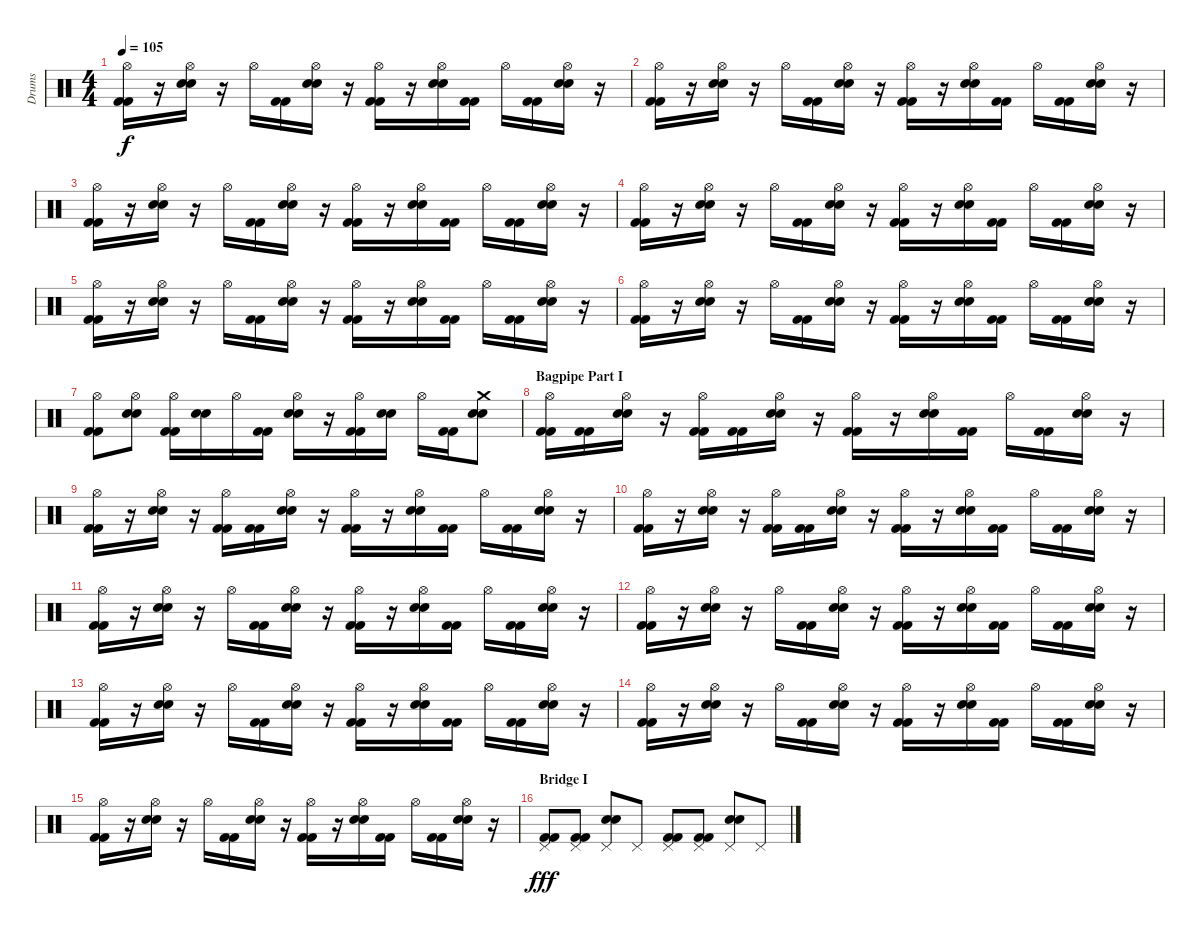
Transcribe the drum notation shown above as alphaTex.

\track ("Drums" "Drums") {instrument percussion}
\staff {score}
\articulation defaults
\ts (4 4)
\tempo 105
\clef neutral
\ks c
("Hi-Hat (open)" "Kick (hit) 2" "Kick (hit) 2").16{dy f} r.16 ("Hi-Hat (open)" "Electric Snare (hit)" "Snare (hit) 2").16 r.16 "Hi-Hat (open)".16 ("Kick (hit) 2" "Kick (hit) 2").16 ("Hi-Hat (open)" "Electric Snare (hit)" "Snare (hit) 2").16 r.16 ("Hi-Hat (open)" "Kick (hit) 2" "Kick (hit) 2").16 r.16 ("Hi-Hat (open)" "Electric Snare (hit)" "Snare (hit) 2").16 ("Kick (hit) 2" "Kick (hit) 2").16 "Hi-Hat (open)".16 ("Kick (hit) 2" "Kick (hit) 2").16 ("Hi-Hat (open)" "Electric Snare (hit)" "Snare (hit) 2").16 r.16 |
("Hi-Hat (open)" "Kick (hit) 2" "Kick (hit) 2").16 r.16 ("Hi-Hat (open)" "Electric Snare (hit)" "Snare (hit) 2").16 r.16 "Hi-Hat (open)".16 ("Kick (hit) 2" "Kick (hit) 2").16 ("Hi-Hat (open)" "Electric Snare (hit)" "Snare (hit) 2").16 r.16 ("Hi-Hat (open)" "Kick (hit) 2" "Kick (hit) 2").16 r.16 ("Hi-Hat (open)" "Electric Snare (hit)" "Snare (hit) 2").16 ("Kick (hit) 2" "Kick (hit) 2").16 "Hi-Hat (open)".16 ("Kick (hit) 2" "Kick (hit) 2").16 ("Hi-Hat (open)" "Electric Snare (hit)" "Snare (hit) 2").16 r.16 |
("Hi-Hat (open)" "Kick (hit) 2" "Kick (hit) 2").16 r.16 ("Hi-Hat (open)" "Electric Snare (hit)" "Snare (hit) 2").16 r.16 "Hi-Hat (open)".16 ("Kick (hit) 2" "Kick (hit) 2").16 ("Hi-Hat (open)" "Electric Snare (hit)" "Snare (hit) 2").16 r.16 ("Hi-Hat (open)" "Kick (hit) 2" "Kick (hit) 2").16 r.16 ("Hi-Hat (open)" "Electric Snare (hit)" "Snare (hit) 2").16 ("Kick (hit) 2" "Kick (hit) 2").16 "Hi-Hat (open)".16 ("Kick (hit) 2" "Kick (hit) 2").16 ("Hi-Hat (open)" "Electric Snare (hit)" "Snare (hit) 2").16 r.16 |
("Hi-Hat (open)" "Kick (hit) 2" "Kick (hit) 2").16 r.16 ("Hi-Hat (open)" "Electric Snare (hit)" "Snare (hit) 2").16 r.16 "Hi-Hat (open)".16 ("Kick (hit) 2" "Kick (hit) 2").16 ("Hi-Hat (open)" "Electric Snare (hit)" "Snare (hit) 2").16 r.16 ("Hi-Hat (open)" "Kick (hit) 2" "Kick (hit) 2").16 r.16 ("Hi-Hat (open)" "Electric Snare (hit)" "Snare (hit) 2").16 ("Kick (hit) 2" "Kick (hit) 2").16 "Hi-Hat (open)".16 ("Kick (hit) 2" "Kick (hit) 2").16 ("Hi-Hat (open)" "Electric Snare (hit)" "Snare (hit) 2").16 r.16 |
("Hi-Hat (open)" "Kick (hit) 2" "Kick (hit) 2").16 r.16 ("Hi-Hat (open)" "Electric Snare (hit)" "Snare (hit) 2").16 r.16 "Hi-Hat (open)".16 ("Kick (hit) 2" "Kick (hit) 2").16 ("Hi-Hat (open)" "Electric Snare (hit)" "Snare (hit) 2").16 r.16 ("Hi-Hat (open)" "Kick (hit) 2" "Kick (hit) 2").16 r.16 ("Hi-Hat (open)" "Electric Snare (hit)" "Snare (hit) 2").16 ("Kick (hit) 2" "Kick (hit) 2").16 "Hi-Hat (open)".16 ("Kick (hit) 2" "Kick (hit) 2").16 ("Hi-Hat (open)" "Electric Snare (hit)" "Snare (hit) 2").16 r.16 |
("Hi-Hat (open)" "Kick (hit) 2" "Kick (hit) 2").16 r.16 ("Hi-Hat (open)" "Electric Snare (hit)" "Snare (hit) 2").16 r.16 "Hi-Hat (open)".16 ("Kick (hit) 2" "Kick (hit) 2").16 ("Hi-Hat (open)" "Electric Snare (hit)" "Snare (hit) 2").16 r.16 ("Hi-Hat (open)" "Kick (hit) 2" "Kick (hit) 2").16 r.16 ("Hi-Hat (open)" "Electric Snare (hit)" "Snare (hit) 2").16 ("Kick (hit) 2" "Kick (hit) 2").16 "Hi-Hat (open)".16 ("Kick (hit) 2" "Kick (hit) 2").16 ("Hi-Hat (open)" "Electric Snare (hit)" "Snare (hit) 2").16 r.16 |
("Hi-Hat (open)" "Kick (hit) 2" "Kick (hit) 2").8 ("Hi-Hat (open)" "Electric Snare (hit)" "Snare (hit) 2").8 ("Hi-Hat (open)" "Kick (hit) 2" "Kick (hit) 2").16 ("Electric Snare (hit)" "Snare (hit) 2").16 "Hi-Hat (open)".16 ("Kick (hit) 2" "Kick (hit) 2").16 ("Hi-Hat (open)" "Electric Snare (hit)" "Snare (hit) 2").16 r.16 ("Hi-Hat (open)" "Kick (hit) 2" "Kick (hit) 2").16 ("Electric Snare (hit)" "Snare (hit) 2").16 "Hi-Hat (open)".16 ("Kick (hit) 2" "Kick (hit) 2").16 ("Crash medium (hit)" "Electric Snare (hit)" "Snare (hit) 2").8 |
\section ("" "Bagpipe Part I")
("Hi-Hat (open)" "Kick (hit) 2" "Kick (hit) 2").16 ("Kick (hit) 2" "Kick (hit) 2").16 ("Hi-Hat (open)" "Electric Snare (hit)" "Snare (hit) 2").16 r.16 ("Hi-Hat (open)" "Kick (hit) 2" "Kick (hit) 2").16 ("Kick (hit) 2" "Kick (hit) 2").16 ("Hi-Hat (open)" "Electric Snare (hit)" "Snare (hit) 2").16 r.16 ("Hi-Hat (open)" "Kick (hit) 2" "Kick (hit) 2").16 r.16 ("Hi-Hat (open)" "Electric Snare (hit)" "Snare (hit) 2").16 ("Kick (hit) 2" "Kick (hit) 2").16 "Hi-Hat (open)".16 ("Kick (hit) 2" "Kick (hit) 2").16 ("Hi-Hat (open)" "Electric Snare (hit)" "Snare (hit) 2").16 r.16 |
("Hi-Hat (open)" "Kick (hit) 2" "Kick (hit) 2").16 r.16 ("Hi-Hat (open)" "Electric Snare (hit)" "Snare (hit) 2").16 r.16 ("Hi-Hat (open)" "Kick (hit) 2" "Kick (hit) 2").16 ("Kick (hit) 2" "Kick (hit) 2").16 ("Hi-Hat (open)" "Electric Snare (hit)" "Snare (hit) 2").16 r.16 ("Hi-Hat (open)" "Kick (hit) 2" "Kick (hit) 2").16 r.16 ("Hi-Hat (open)" "Electric Snare (hit)" "Snare (hit) 2").16 ("Kick (hit) 2" "Kick (hit) 2").16 "Hi-Hat (open)".16 ("Kick (hit) 2" "Kick (hit) 2").16 ("Hi-Hat (open)" "Electric Snare (hit)" "Snare (hit) 2").16 r.16 |
("Hi-Hat (open)" "Kick (hit) 2" "Kick (hit) 2").16 r.16 ("Hi-Hat (open)" "Electric Snare (hit)" "Snare (hit) 2").16 r.16 ("Hi-Hat (open)" "Kick (hit) 2" "Kick (hit) 2").16 ("Kick (hit) 2" "Kick (hit) 2").16 ("Hi-Hat (open)" "Electric Snare (hit)" "Snare (hit) 2").16 r.16 ("Hi-Hat (open)" "Kick (hit) 2" "Kick (hit) 2").16 r.16 ("Hi-Hat (open)" "Electric Snare (hit)" "Snare (hit) 2").16 ("Kick (hit) 2" "Kick (hit) 2").16 "Hi-Hat (open)".16 ("Kick (hit) 2" "Kick (hit) 2").16 ("Hi-Hat (open)" "Electric Snare (hit)" "Snare (hit) 2").16 r.16 |
("Hi-Hat (open)" "Kick (hit) 2" "Kick (hit) 2").16 r.16 ("Hi-Hat (open)" "Electric Snare (hit)" "Snare (hit) 2").16 r.16 "Hi-Hat (open)".16 ("Kick (hit) 2" "Kick (hit) 2").16 ("Hi-Hat (open)" "Electric Snare (hit)" "Snare (hit) 2").16 r.16 ("Hi-Hat (open)" "Kick (hit) 2" "Kick (hit) 2").16 r.16 ("Hi-Hat (open)" "Electric Snare (hit)" "Snare (hit) 2").16 ("Kick (hit) 2" "Kick (hit) 2").16 "Hi-Hat (open)".16 ("Kick (hit) 2" "Kick (hit) 2").16 ("Hi-Hat (open)" "Electric Snare (hit)" "Snare (hit) 2").16 r.16 |
("Hi-Hat (open)" "Kick (hit) 2" "Kick (hit) 2").16 r.16 ("Hi-Hat (open)" "Electric Snare (hit)" "Snare (hit) 2").16 r.16 "Hi-Hat (open)".16 ("Kick (hit) 2" "Kick (hit) 2").16 ("Hi-Hat (open)" "Electric Snare (hit)" "Snare (hit) 2").16 r.16 ("Hi-Hat (open)" "Kick (hit) 2" "Kick (hit) 2").16 r.16 ("Hi-Hat (open)" "Electric Snare (hit)" "Snare (hit) 2").16 ("Kick (hit) 2" "Kick (hit) 2").16 "Hi-Hat (open)".16 ("Kick (hit) 2" "Kick (hit) 2").16 ("Hi-Hat (open)" "Electric Snare (hit)" "Snare (hit) 2").16 r.16 |
("Hi-Hat (open)" "Kick (hit) 2" "Kick (hit) 2").16 r.16 ("Hi-Hat (open)" "Electric Snare (hit)" "Snare (hit) 2").16 r.16 "Hi-Hat (open)".16 ("Kick (hit) 2" "Kick (hit) 2").16 ("Hi-Hat (open)" "Electric Snare (hit)" "Snare (hit) 2").16 r.16 ("Hi-Hat (open)" "Kick (hit) 2" "Kick (hit) 2").16 r.16 ("Hi-Hat (open)" "Electric Snare (hit)" "Snare (hit) 2").16 ("Kick (hit) 2" "Kick (hit) 2").16 "Hi-Hat (open)".16 ("Kick (hit) 2" "Kick (hit) 2").16 ("Hi-Hat (open)" "Electric Snare (hit)" "Snare (hit) 2").16 r.16 |
("Hi-Hat (open)" "Kick (hit) 2" "Kick (hit) 2").16 r.16 ("Hi-Hat (open)" "Electric Snare (hit)" "Snare (hit) 2").16 r.16 "Hi-Hat (open)".16 ("Kick (hit) 2" "Kick (hit) 2").16 ("Hi-Hat (open)" "Electric Snare (hit)" "Snare (hit) 2").16 r.16 ("Hi-Hat (open)" "Kick (hit) 2" "Kick (hit) 2").16 r.16 ("Hi-Hat (open)" "Electric Snare (hit)" "Snare (hit) 2").16 ("Kick (hit) 2" "Kick (hit) 2").16 "Hi-Hat (open)".16 ("Kick (hit) 2" "Kick (hit) 2").16 ("Hi-Hat (open)" "Electric Snare (hit)" "Snare (hit) 2").16 r.16 |
("Hi-Hat (open)" "Kick (hit) 2" "Kick (hit) 2").16 r.16 ("Hi-Hat (open)" "Electric Snare (hit)" "Snare (hit) 2").16 r.16 "Hi-Hat (open)".16 ("Kick (hit) 2" "Kick (hit) 2").16 ("Hi-Hat (open)" "Electric Snare (hit)" "Snare (hit) 2").16 r.16 ("Hi-Hat (open)" "Kick (hit) 2" "Kick (hit) 2").16 r.16 ("Hi-Hat (open)" "Electric Snare (hit)" "Snare (hit) 2").16 ("Kick (hit) 2" "Kick (hit) 2").16 "Hi-Hat (open)".16 ("Kick (hit) 2" "Kick (hit) 2").16 ("Hi-Hat (open)" "Electric Snare (hit)" "Snare (hit) 2").16 r.16 |
\section ("" "Bridge I")
("Pedal Hi-Hat (hit)" "Kick (hit) 2" "Kick (hit) 2").8{dy fff} ("Pedal Hi-Hat (hit)" "Kick (hit) 2" "Kick (hit) 2").8 ("Pedal Hi-Hat (hit)" "Electric Snare (hit)" "Snare (hit) 2").8 "Pedal Hi-Hat (hit)".8 ("Pedal Hi-Hat (hit)" "Kick (hit) 2" "Kick (hit) 2").8 ("Pedal Hi-Hat (hit)" "Kick (hit) 2" "Kick (hit) 2").8 ("Pedal Hi-Hat (hit)" "Electric Snare (hit)" "Snare (hit) 2").8 "Pedal Hi-Hat (hit)".8
